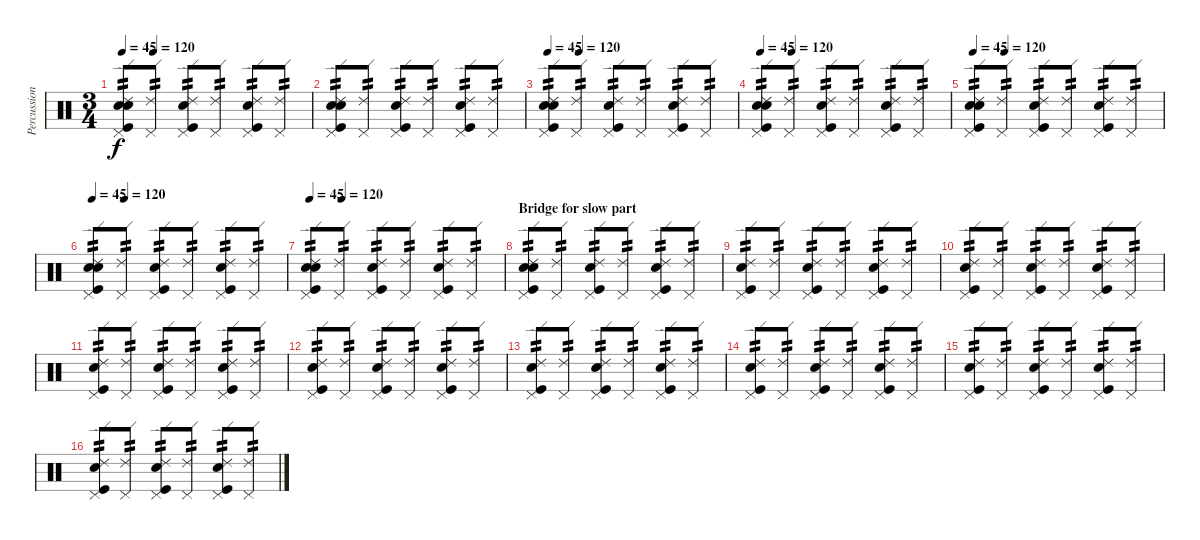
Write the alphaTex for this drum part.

\track ("Percussion" "Percussion") {instrument percussion}
\staff {score}
\articulation defaults
\ts (3 4)
\tempo 45
\tempo (120 0.16666666666666666)
\clef neutral
\ks c
("Metronome (bell)" "Pedal Hi-Hat (hit)" "Kick (hit)" "Electric Snare (hit)" "Ride (edge) 2").8{tp 2 dy f} ("Pedal Hi-Hat (hit)" "Ride (edge) 2").8{tp 2} ("Pedal Hi-Hat (hit)" "Kick (hit)" "Electric Snare (hit)" "Ride (edge) 2").8{tp 2} ("Pedal Hi-Hat (hit)" "Ride (edge) 2").8{tp 2} ("Pedal Hi-Hat (hit)" "Kick (hit)" "Electric Snare (hit)" "Ride (edge) 2").8{tp 2} ("Pedal Hi-Hat (hit)" "Ride (edge) 2").8{tp 2} |
("Metronome (bell)" "Pedal Hi-Hat (hit)" "Kick (hit)" "Electric Snare (hit)" "Ride (edge) 2").8{tp 2} ("Pedal Hi-Hat (hit)" "Ride (edge) 2").8{tp 2} ("Pedal Hi-Hat (hit)" "Kick (hit)" "Electric Snare (hit)" "Ride (edge) 2").8{tp 2} ("Pedal Hi-Hat (hit)" "Ride (edge) 2").8{tp 2} ("Pedal Hi-Hat (hit)" "Kick (hit)" "Electric Snare (hit)" "Ride (edge) 2").8{tp 2} ("Pedal Hi-Hat (hit)" "Ride (edge) 2").8{tp 2} |
\tempo 45
\tempo (120 0.16666666666666666)
("Metronome (bell)" "Pedal Hi-Hat (hit)" "Kick (hit)" "Electric Snare (hit)" "Ride (edge) 2").8{tp 2} ("Pedal Hi-Hat (hit)" "Ride (edge) 2").8{tp 2} ("Pedal Hi-Hat (hit)" "Kick (hit)" "Electric Snare (hit)" "Ride (edge) 2").8{tp 2} ("Pedal Hi-Hat (hit)" "Ride (edge) 2").8{tp 2} ("Pedal Hi-Hat (hit)" "Kick (hit)" "Electric Snare (hit)" "Ride (edge) 2").8{tp 2} ("Pedal Hi-Hat (hit)" "Ride (edge) 2").8{tp 2} |
\tempo 45
\tempo (120 0.16666666666666666)
("Metronome (bell)" "Pedal Hi-Hat (hit)" "Kick (hit)" "Electric Snare (hit)" "Ride (edge) 2").8{tp 2} ("Pedal Hi-Hat (hit)" "Ride (edge) 2").8{tp 2} ("Pedal Hi-Hat (hit)" "Kick (hit)" "Electric Snare (hit)" "Ride (edge) 2").8{tp 2} ("Pedal Hi-Hat (hit)" "Ride (edge) 2").8{tp 2} ("Pedal Hi-Hat (hit)" "Kick (hit)" "Electric Snare (hit)" "Ride (edge) 2").8{tp 2} ("Pedal Hi-Hat (hit)" "Ride (edge) 2").8{tp 2} |
\tempo 45
\tempo (120 0.16666666666666666)
("Metronome (bell)" "Pedal Hi-Hat (hit)" "Kick (hit)" "Electric Snare (hit)" "Ride (edge) 2").8{tp 2} ("Pedal Hi-Hat (hit)" "Ride (edge) 2").8{tp 2} ("Pedal Hi-Hat (hit)" "Kick (hit)" "Electric Snare (hit)" "Ride (edge) 2").8{tp 2} ("Pedal Hi-Hat (hit)" "Ride (edge) 2").8{tp 2} ("Pedal Hi-Hat (hit)" "Kick (hit)" "Electric Snare (hit)" "Ride (edge) 2").8{tp 2} ("Pedal Hi-Hat (hit)" "Ride (edge) 2").8{tp 2} |
\tempo 45
\tempo (120 0.16666666666666666)
("Metronome (bell)" "Pedal Hi-Hat (hit)" "Kick (hit)" "Electric Snare (hit)" "Ride (edge) 2").8{tp 2} ("Pedal Hi-Hat (hit)" "Ride (edge) 2").8{tp 2} ("Pedal Hi-Hat (hit)" "Kick (hit)" "Electric Snare (hit)" "Ride (edge) 2").8{tp 2} ("Pedal Hi-Hat (hit)" "Ride (edge) 2").8{tp 2} ("Pedal Hi-Hat (hit)" "Kick (hit)" "Electric Snare (hit)" "Ride (edge) 2").8{tp 2} ("Pedal Hi-Hat (hit)" "Ride (edge) 2").8{tp 2} |
\tempo 45
\tempo (120 0.16666666666666666)
("Metronome (bell)" "Pedal Hi-Hat (hit)" "Kick (hit)" "Electric Snare (hit)" "Ride (edge) 2").8{tp 2} ("Pedal Hi-Hat (hit)" "Ride (edge) 2").8{tp 2} ("Pedal Hi-Hat (hit)" "Kick (hit)" "Electric Snare (hit)" "Ride (edge) 2").8{tp 2} ("Pedal Hi-Hat (hit)" "Ride (edge) 2").8{tp 2} ("Pedal Hi-Hat (hit)" "Kick (hit)" "Electric Snare (hit)" "Ride (edge) 2").8{tp 2} ("Pedal Hi-Hat (hit)" "Ride (edge) 2").8{tp 2} |
\section ("" "Bridge for slow part")
("Metronome (bell)" "Pedal Hi-Hat (hit)" "Kick (hit)" "Electric Snare (hit)" "Ride (edge) 2").8{tp 2} ("Pedal Hi-Hat (hit)" "Ride (edge) 2").8{tp 2} ("Pedal Hi-Hat (hit)" "Kick (hit)" "Electric Snare (hit)" "Ride (edge) 2").8{tp 2} ("Pedal Hi-Hat (hit)" "Ride (edge) 2").8{tp 2} ("Pedal Hi-Hat (hit)" "Kick (hit)" "Electric Snare (hit)" "Ride (edge) 2").8{tp 2} ("Pedal Hi-Hat (hit)" "Ride (edge) 2").8{tp 2} |
("Pedal Hi-Hat (hit)" "Kick (hit)" "Electric Snare (hit)" "Ride (edge) 2").8{tp 2} ("Pedal Hi-Hat (hit)" "Ride (edge) 2").8{tp 2} ("Pedal Hi-Hat (hit)" "Kick (hit)" "Electric Snare (hit)" "Ride (edge) 2").8{tp 2} ("Pedal Hi-Hat (hit)" "Ride (edge) 2").8{tp 2} ("Pedal Hi-Hat (hit)" "Kick (hit)" "Electric Snare (hit)" "Ride (edge) 2").8{tp 2} ("Pedal Hi-Hat (hit)" "Ride (edge) 2").8{tp 2} |
("Pedal Hi-Hat (hit)" "Kick (hit)" "Electric Snare (hit)" "Ride (edge) 2").8{tp 2} ("Pedal Hi-Hat (hit)" "Ride (edge) 2").8{tp 2} ("Pedal Hi-Hat (hit)" "Kick (hit)" "Electric Snare (hit)" "Ride (edge) 2").8{tp 2} ("Pedal Hi-Hat (hit)" "Ride (edge) 2").8{tp 2} ("Pedal Hi-Hat (hit)" "Kick (hit)" "Electric Snare (hit)" "Ride (edge) 2").8{tp 2} ("Pedal Hi-Hat (hit)" "Ride (edge) 2").8{tp 2} |
("Pedal Hi-Hat (hit)" "Kick (hit)" "Electric Snare (hit)" "Ride (edge) 2").8{tp 2} ("Pedal Hi-Hat (hit)" "Ride (edge) 2").8{tp 2} ("Pedal Hi-Hat (hit)" "Kick (hit)" "Electric Snare (hit)" "Ride (edge) 2").8{tp 2} ("Pedal Hi-Hat (hit)" "Ride (edge) 2").8{tp 2} ("Pedal Hi-Hat (hit)" "Kick (hit)" "Electric Snare (hit)" "Ride (edge) 2").8{tp 2} ("Pedal Hi-Hat (hit)" "Ride (edge) 2").8{tp 2} |
("Pedal Hi-Hat (hit)" "Kick (hit)" "Electric Snare (hit)" "Ride (edge) 2").8{tp 2} ("Pedal Hi-Hat (hit)" "Ride (edge) 2").8{tp 2} ("Pedal Hi-Hat (hit)" "Kick (hit)" "Electric Snare (hit)" "Ride (edge) 2").8{tp 2} ("Pedal Hi-Hat (hit)" "Ride (edge) 2").8{tp 2} ("Pedal Hi-Hat (hit)" "Kick (hit)" "Electric Snare (hit)" "Ride (edge) 2").8{tp 2} ("Pedal Hi-Hat (hit)" "Ride (edge) 2").8{tp 2} |
("Pedal Hi-Hat (hit)" "Kick (hit)" "Electric Snare (hit)" "Ride (edge) 2").8{tp 2} ("Pedal Hi-Hat (hit)" "Ride (edge) 2").8{tp 2} ("Pedal Hi-Hat (hit)" "Kick (hit)" "Electric Snare (hit)" "Ride (edge) 2").8{tp 2} ("Pedal Hi-Hat (hit)" "Ride (edge) 2").8{tp 2} ("Pedal Hi-Hat (hit)" "Kick (hit)" "Electric Snare (hit)" "Ride (edge) 2").8{tp 2} ("Pedal Hi-Hat (hit)" "Ride (edge) 2").8{tp 2} |
("Pedal Hi-Hat (hit)" "Kick (hit)" "Electric Snare (hit)" "Ride (edge) 2").8{tp 2} ("Pedal Hi-Hat (hit)" "Ride (edge) 2").8{tp 2} ("Pedal Hi-Hat (hit)" "Kick (hit)" "Electric Snare (hit)" "Ride (edge) 2").8{tp 2} ("Pedal Hi-Hat (hit)" "Ride (edge) 2").8{tp 2} ("Pedal Hi-Hat (hit)" "Kick (hit)" "Electric Snare (hit)" "Ride (edge) 2").8{tp 2} ("Pedal Hi-Hat (hit)" "Ride (edge) 2").8{tp 2} |
("Pedal Hi-Hat (hit)" "Kick (hit)" "Electric Snare (hit)" "Ride (edge) 2").8{tp 2} ("Pedal Hi-Hat (hit)" "Ride (edge) 2").8{tp 2} ("Pedal Hi-Hat (hit)" "Kick (hit)" "Electric Snare (hit)" "Ride (edge) 2").8{tp 2} ("Pedal Hi-Hat (hit)" "Ride (edge) 2").8{tp 2} ("Pedal Hi-Hat (hit)" "Kick (hit)" "Electric Snare (hit)" "Ride (edge) 2").8{tp 2} ("Pedal Hi-Hat (hit)" "Ride (edge) 2").8{tp 2} |
("Pedal Hi-Hat (hit)" "Kick (hit)" "Electric Snare (hit)" "Ride (edge) 2").8{tp 2} ("Pedal Hi-Hat (hit)" "Ride (edge) 2").8{tp 2} ("Pedal Hi-Hat (hit)" "Kick (hit)" "Electric Snare (hit)" "Ride (edge) 2").8{tp 2} ("Pedal Hi-Hat (hit)" "Ride (edge) 2").8{tp 2} ("Pedal Hi-Hat (hit)" "Kick (hit)" "Electric Snare (hit)" "Ride (edge) 2").8{tp 2} ("Pedal Hi-Hat (hit)" "Ride (edge) 2").8{tp 2}
